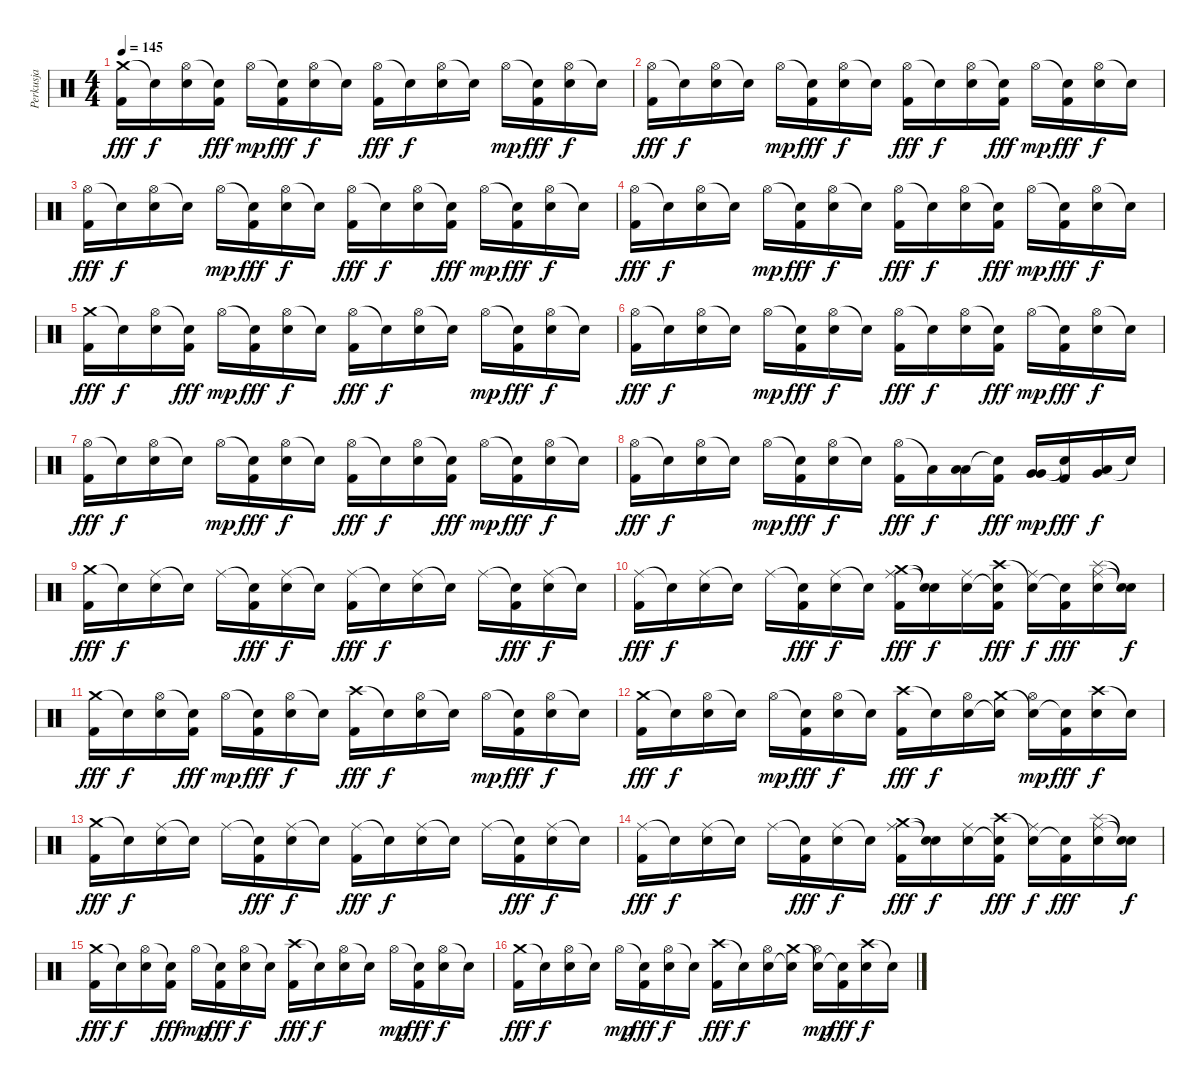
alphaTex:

\track ("Perkusja" "Perkusja") {instrument percussion}
\staff {score}
\articulation defaults
\ts (4 4)
\tempo 145
\clef neutral
\ks c
("Crash medium (hit)" "Kick (hit) 2").16{dy fff} "Snare (hit)"{t}.16{dy f} ("Hi-Hat (open)" "Electric Snare (hit)").16 ("Snare (hit)"{t} "Kick (hit) 2").16{dy fff} "Hi-Hat (open)".16{dy mp} ("Snare (hit)"{t} "Kick (hit) 2").16{dy fff} ("Hi-Hat (open)" "Electric Snare (hit)").16{dy f} "Snare (hit)"{t}.16 ("Hi-Hat (open)" "Kick (hit) 2").16{dy fff} "Snare (hit)"{t}.16{dy f} ("Hi-Hat (open)" "Electric Snare (hit)").16 "Snare (hit)"{t}.16 "Hi-Hat (open)".16{dy mp} ("Snare (hit)"{t} "Kick (hit) 2").16{dy fff} ("Hi-Hat (open)" "Electric Snare (hit)").16{dy f} "Snare (hit)"{t}.16 |
("Hi-Hat (open)" "Kick (hit) 2").16{dy fff} "Snare (hit)"{t}.16{dy f} ("Hi-Hat (open)" "Electric Snare (hit)").16 "Snare (hit)"{t}.16 "Hi-Hat (open)".16{dy mp} ("Snare (hit)"{t} "Kick (hit) 2").16{dy fff} ("Hi-Hat (open)" "Electric Snare (hit)").16{dy f} "Snare (hit)"{t}.16 ("Hi-Hat (open)" "Kick (hit) 2").16{dy fff} "Snare (hit)"{t}.16{dy f} ("Hi-Hat (open)" "Electric Snare (hit)").16 ("Snare (hit)"{t} "Kick (hit) 2").16{dy fff} "Hi-Hat (open)".16{dy mp} ("Snare (hit)"{t} "Kick (hit) 2").16{dy fff} ("Hi-Hat (open)" "Electric Snare (hit)").16{dy f} "Snare (hit)"{t}.16 |
("Hi-Hat (open)" "Kick (hit) 2").16{dy fff} "Snare (hit)"{t}.16{dy f} ("Hi-Hat (open)" "Electric Snare (hit)").16 "Snare (hit)"{t}.16 "Hi-Hat (open)".16{dy mp} ("Snare (hit)"{t} "Kick (hit) 2").16{dy fff} ("Hi-Hat (open)" "Electric Snare (hit)").16{dy f} "Snare (hit)"{t}.16 ("Hi-Hat (open)" "Kick (hit) 2").16{dy fff} "Snare (hit)"{t}.16{dy f} ("Hi-Hat (open)" "Electric Snare (hit)").16 ("Snare (hit)"{t} "Kick (hit) 2").16{dy fff} "Hi-Hat (open)".16{dy mp} ("Snare (hit)"{t} "Kick (hit) 2").16{dy fff} ("Hi-Hat (open)" "Electric Snare (hit)").16{dy f} "Snare (hit)"{t}.16 |
("Hi-Hat (open)" "Kick (hit) 2").16{dy fff} "Snare (hit)"{t}.16{dy f} ("Hi-Hat (open)" "Electric Snare (hit)").16 "Snare (hit)"{t}.16 "Hi-Hat (open)".16{dy mp} ("Snare (hit)"{t} "Kick (hit) 2").16{dy fff} ("Hi-Hat (open)" "Electric Snare (hit)").16{dy f} "Snare (hit)"{t}.16 ("Hi-Hat (open)" "Kick (hit) 2").16{dy fff} "Snare (hit)"{t}.16{dy f} ("Hi-Hat (open)" "Electric Snare (hit)").16 ("Snare (hit)"{t} "Kick (hit) 2").16{dy fff} "Hi-Hat (open)".16{dy mp} ("Snare (hit)"{t} "Kick (hit) 2").16{dy fff} ("Hi-Hat (open)" "Electric Snare (hit)").16{dy f} "Snare (hit)"{t}.16 |
("Crash medium (hit)" "Kick (hit) 2").16{dy fff} "Snare (hit)"{t}.16{dy f} ("Hi-Hat (open)" "Electric Snare (hit)").16 ("Snare (hit)"{t} "Kick (hit) 2").16{dy fff} "Hi-Hat (open)".16{dy mp} ("Snare (hit)"{t} "Kick (hit) 2").16{dy fff} ("Hi-Hat (open)" "Electric Snare (hit)").16{dy f} "Snare (hit)"{t}.16 ("Hi-Hat (open)" "Kick (hit) 2").16{dy fff} "Snare (hit)"{t}.16{dy f} ("Hi-Hat (open)" "Electric Snare (hit)").16 "Snare (hit)"{t}.16 "Hi-Hat (open)".16{dy mp} ("Snare (hit)"{t} "Kick (hit) 2").16{dy fff} ("Hi-Hat (open)" "Electric Snare (hit)").16{dy f} "Snare (hit)"{t}.16 |
("Hi-Hat (open)" "Kick (hit) 2").16{dy fff} "Snare (hit)"{t}.16{dy f} ("Hi-Hat (open)" "Electric Snare (hit)").16 "Snare (hit)"{t}.16 "Hi-Hat (open)".16{dy mp} ("Snare (hit)"{t} "Kick (hit) 2").16{dy fff} ("Hi-Hat (open)" "Electric Snare (hit)").16{dy f} "Snare (hit)"{t}.16 ("Hi-Hat (open)" "Kick (hit) 2").16{dy fff} "Snare (hit)"{t}.16{dy f} ("Hi-Hat (open)" "Electric Snare (hit)").16 ("Snare (hit)"{t} "Kick (hit) 2").16{dy fff} "Hi-Hat (open)".16{dy mp} ("Snare (hit)"{t} "Kick (hit) 2").16{dy fff} ("Hi-Hat (open)" "Electric Snare (hit)").16{dy f} "Snare (hit)"{t}.16 |
("Hi-Hat (open)" "Kick (hit) 2").16{dy fff} "Snare (hit)"{t}.16{dy f} ("Hi-Hat (open)" "Electric Snare (hit)").16 "Snare (hit)"{t}.16 "Hi-Hat (open)".16{dy mp} ("Snare (hit)"{t} "Kick (hit) 2").16{dy fff} ("Hi-Hat (open)" "Electric Snare (hit)").16{dy f} "Snare (hit)"{t}.16 ("Hi-Hat (open)" "Kick (hit) 2").16{dy fff} "Snare (hit)"{t}.16{dy f} ("Hi-Hat (open)" "Electric Snare (hit)").16 ("Snare (hit)"{t} "Kick (hit) 2").16{dy fff} "Hi-Hat (open)".16{dy mp} ("Snare (hit)"{t} "Kick (hit) 2").16{dy fff} ("Hi-Hat (open)" "Electric Snare (hit)").16{dy f} "Snare (hit)"{t}.16 |
("Hi-Hat (open)" "Kick (hit) 2").16{dy fff} "Snare (hit)"{t}.16{dy f} ("Hi-Hat (open)" "Electric Snare (hit)").16 "Snare (hit)"{t}.16 "Hi-Hat (open)".16{dy mp} ("Snare (hit)"{t} "Kick (hit) 2").16{dy fff} ("Hi-Hat (open)" "Electric Snare (hit)").16{dy f} "Snare (hit)"{t}.16 ("Hi-Hat (open)" "Kick (hit) 2").16{dy fff} "Low Tom (hit)"{t}.16{dy f} ("Low Tom (hit)" "Low Tom (hit)").16 ("Snare (hit)"{t} "Kick (hit) 2").16{dy fff} ("Very Low Tom (hit)" "Very Low Tom (hit)").16{dy mp} ("Snare (hit)"{t} "Kick (hit) 2").16{dy fff} ("Very Low Tom (hit)" "Low Floor Tom (hit)").16{dy f} "Snare (hit)"{t}.16 |
("Crash medium (hit)" "Kick (hit) 2").16{dy fff} "Snare (hit)"{t}.16{dy f} ("Ride (middle)" "Electric Snare (hit)").16 "Snare (hit)"{t}.16 "Ride (middle)".16 ("Snare (hit)"{t} "Kick (hit) 2").16{dy fff} ("Ride (middle)" "Electric Snare (hit)").16{dy f} "Snare (hit)"{t}.16 ("Ride (middle)" "Kick (hit) 2").16{dy fff} "Snare (hit)"{t}.16{dy f} ("Ride (middle)" "Electric Snare (hit)").16 "Snare (hit)"{t}.16 "Ride (middle)".16 ("Snare (hit)"{t} "Kick (hit) 2").16{dy fff} ("Ride (middle)" "Electric Snare (hit)").16{dy f} "Snare (hit)"{t}.16 |
("Ride (middle)" "Kick (hit) 2").16{dy fff} "Snare (hit)"{t}.16{dy f} ("Ride (middle)" "Electric Snare (hit)").16 "Snare (hit)"{t}.16 "Ride (middle)".16 ("Snare (hit)"{t} "Kick (hit) 2").16{dy fff} ("Ride (middle)" "Electric Snare (hit)").16{dy f} "Snare (hit)"{t}.16 ("Crash medium (hit)" "Ride (middle)" "Kick (hit) 2").16{dy fff} ("Snare (hit)"{t} "Snare (hit)"{t}).16{dy f} ("Ride (middle)" "Electric Snare (hit)").16 ("Crash high (hit)" "Snare (hit)"{t} "Kick (hit) 2").16{dy fff} ("Snare (hit)"{t} "Ride (middle)").16{dy f} ("Snare (hit)"{t} "Kick (hit) 2").16{dy fff} ("Splash (hit)" "Ride (middle)" "Electric Snare (hit)").16 ("Snare (hit)"{t} "Snare (hit)"{t}).16{dy f} |
("Crash medium (hit)" "Kick (hit) 2").16{dy fff} "Snare (hit)"{t}.16{dy f} ("Hi-Hat (open)" "Electric Snare (hit)").16 ("Snare (hit)"{t} "Kick (hit) 2").16{dy fff} "Hi-Hat (open)".16{dy mp} ("Snare (hit)"{t} "Kick (hit) 2").16{dy fff} ("Hi-Hat (open)" "Electric Snare (hit)").16{dy f} "Snare (hit)"{t}.16 ("Crash high (hit)" "Kick (hit) 2").16{dy fff} "Snare (hit)"{t}.16{dy f} ("Hi-Hat (open)" "Electric Snare (hit)").16 "Snare (hit)"{t}.16 "Hi-Hat (open)".16{dy mp} ("Snare (hit)"{t} "Kick (hit) 2").16{dy fff} ("Hi-Hat (open)" "Electric Snare (hit)").16{dy f} "Snare (hit)"{t}.16 |
("Crash medium (hit)" "Kick (hit) 2").16{dy fff} "Snare (hit)"{t}.16{dy f} ("Hi-Hat (open)" "Electric Snare (hit)").16 "Snare (hit)"{t}.16 "Hi-Hat (open)".16{dy mp} ("Snare (hit)"{t} "Kick (hit) 2").16{dy fff} ("Hi-Hat (open)" "Electric Snare (hit)").16{dy f} "Snare (hit)"{t}.16 ("Crash high (hit)" "Kick (hit) 2").16{dy fff} "Snare (hit)"{t}.16{dy f} ("Hi-Hat (open)" "Electric Snare (hit)").16 ("Crash medium (hit)" "Snare (hit)"{t}).16 ("Snare (hit)"{t} "Hi-Hat (open)").16{dy mp} ("Snare (hit)"{t} "Kick (hit) 2").16{dy fff} ("Crash high (hit)" "Electric Snare (hit)").16{dy f} "Snare (hit)"{t}.16 |
("Crash medium (hit)" "Kick (hit) 2").16{dy fff} "Snare (hit)"{t}.16{dy f} ("Ride (middle)" "Electric Snare (hit)").16 "Snare (hit)"{t}.16 "Ride (middle)".16 ("Snare (hit)"{t} "Kick (hit) 2").16{dy fff} ("Ride (middle)" "Electric Snare (hit)").16{dy f} "Snare (hit)"{t}.16 ("Ride (middle)" "Kick (hit) 2").16{dy fff} "Snare (hit)"{t}.16{dy f} ("Ride (middle)" "Electric Snare (hit)").16 "Snare (hit)"{t}.16 "Ride (middle)".16 ("Snare (hit)"{t} "Kick (hit) 2").16{dy fff} ("Ride (middle)" "Electric Snare (hit)").16{dy f} "Snare (hit)"{t}.16 |
("Ride (middle)" "Kick (hit) 2").16{dy fff} "Snare (hit)"{t}.16{dy f} ("Ride (middle)" "Electric Snare (hit)").16 "Snare (hit)"{t}.16 "Ride (middle)".16 ("Snare (hit)"{t} "Kick (hit) 2").16{dy fff} ("Ride (middle)" "Electric Snare (hit)").16{dy f} "Snare (hit)"{t}.16 ("Crash medium (hit)" "Ride (middle)" "Kick (hit) 2").16{dy fff} ("Snare (hit)"{t} "Snare (hit)"{t}).16{dy f} ("Ride (middle)" "Electric Snare (hit)").16 ("Crash high (hit)" "Snare (hit)"{t} "Kick (hit) 2").16{dy fff} ("Snare (hit)"{t} "Ride (middle)").16{dy f} ("Snare (hit)"{t} "Kick (hit) 2").16{dy fff} ("Splash (hit)" "Ride (middle)" "Electric Snare (hit)").16 ("Snare (hit)"{t} "Snare (hit)"{t}).16{dy f} |
("Crash medium (hit)" "Kick (hit) 2").16{dy fff} "Snare (hit)"{t}.16{dy f} ("Hi-Hat (open)" "Electric Snare (hit)").16 ("Snare (hit)"{t} "Kick (hit) 2").16{dy fff} "Hi-Hat (open)".16{dy mp} ("Snare (hit)"{t} "Kick (hit) 2").16{dy fff} ("Hi-Hat (open)" "Electric Snare (hit)").16{dy f} "Snare (hit)"{t}.16 ("Crash high (hit)" "Kick (hit) 2").16{dy fff} "Snare (hit)"{t}.16{dy f} ("Hi-Hat (open)" "Electric Snare (hit)").16 "Snare (hit)"{t}.16 "Hi-Hat (open)".16{dy mp} ("Snare (hit)"{t} "Kick (hit) 2").16{dy fff} ("Hi-Hat (open)" "Electric Snare (hit)").16{dy f} "Snare (hit)"{t}.16 |
("Crash medium (hit)" "Kick (hit) 2").16{dy fff} "Snare (hit)"{t}.16{dy f} ("Hi-Hat (open)" "Electric Snare (hit)").16 "Snare (hit)"{t}.16 "Hi-Hat (open)".16{dy mp} ("Snare (hit)"{t} "Kick (hit) 2").16{dy fff} ("Hi-Hat (open)" "Electric Snare (hit)").16{dy f} "Snare (hit)"{t}.16 ("Crash high (hit)" "Kick (hit) 2").16{dy fff} "Snare (hit)"{t}.16{dy f} ("Hi-Hat (open)" "Electric Snare (hit)").16 ("Crash medium (hit)" "Snare (hit)"{t}).16 ("Snare (hit)"{t} "Hi-Hat (open)").16{dy mp} ("Snare (hit)"{t} "Kick (hit) 2").16{dy fff} ("Crash high (hit)" "Electric Snare (hit)").16{dy f} "Snare (hit)"{t}.16
